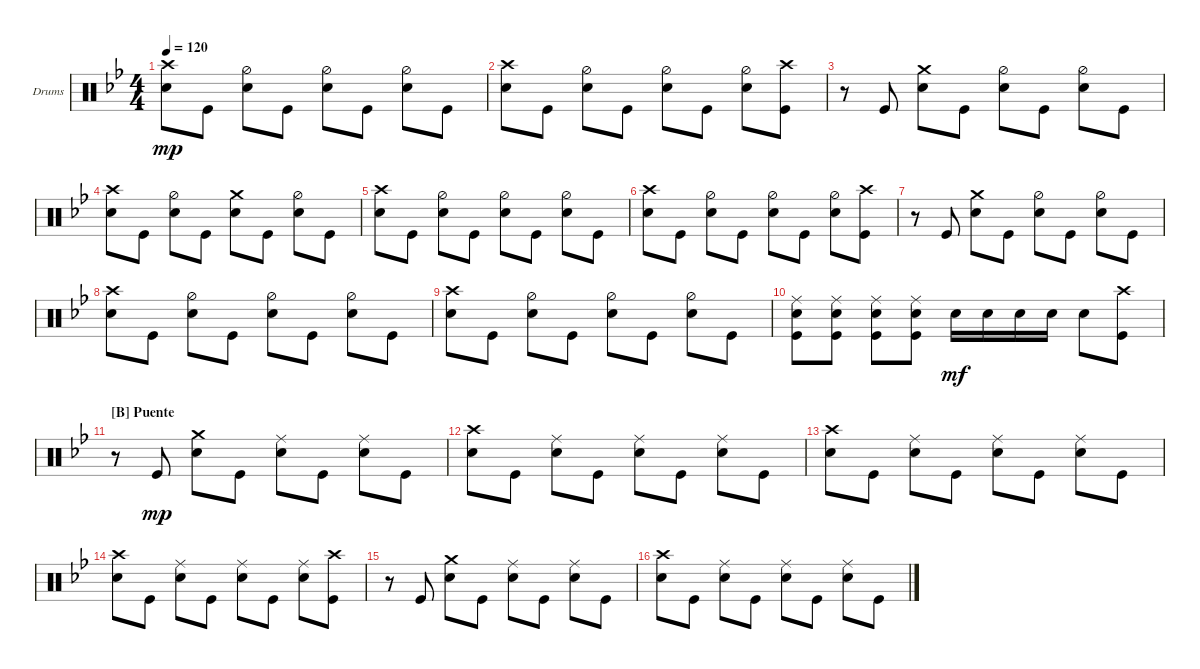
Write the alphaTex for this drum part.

\bracketExtendMode groupsimilarinstruments
\firstSystemTrackNameOrientation horizontal
\otherSystemsTrackNameOrientation horizontal
\track ("Drums Ghoul" "Drums") {instrument percussion}
\staff {score}
\articulation defaults
\ts (4 4)
\tempo 120
\clef neutral
\ks bb
("Snare (hit) 2" "Crash high (hit)").8{dy mp} "Kick (hit)".8 ("Snare (hit) 2" "Hi-Hat (half)").8 "Kick (hit)".8 ("Hi-Hat (half)" "Snare (hit) 2").8 "Kick (hit)".8 ("Hi-Hat (half)" "Snare (hit) 2").8 "Kick (hit)".8 |
("Snare (hit) 2" "Crash high (hit)").8 "Kick (hit)".8 ("Snare (hit) 2" "Hi-Hat (half)").8 "Kick (hit)".8 ("Hi-Hat (half)" "Snare (hit) 2").8 "Kick (hit)".8 ("Hi-Hat (half)" "Snare (hit) 2").8 ("Kick (hit)" "Crash high (hit)").8 |
r.8 "Kick (hit)".8 ("Snare (hit) 2" "Crash medium (hit)").8 "Kick (hit)".8 ("Hi-Hat (half)" "Snare (hit) 2").8 "Kick (hit)".8 ("Hi-Hat (half)" "Snare (hit) 2").8 "Kick (hit)".8 |
("Snare (hit) 2" "Crash high (hit)").8 "Kick (hit)".8 ("Snare (hit) 2" "Hi-Hat (half)").8 "Kick (hit)".8 ("Snare (hit) 2" "Crash medium (hit)").8 "Kick (hit)".8 ("Hi-Hat (half)" "Snare (hit) 2").8 "Kick (hit)".8 |
("Snare (hit) 2" "Crash high (hit)").8 "Kick (hit)".8 ("Snare (hit) 2" "Hi-Hat (half)").8 "Kick (hit)".8 ("Hi-Hat (half)" "Snare (hit) 2").8 "Kick (hit)".8 ("Hi-Hat (half)" "Snare (hit) 2").8 "Kick (hit)".8 |
("Snare (hit) 2" "Crash high (hit)").8 "Kick (hit)".8 ("Snare (hit) 2" "Hi-Hat (half)").8 "Kick (hit)".8 ("Hi-Hat (half)" "Snare (hit) 2").8 "Kick (hit)".8 ("Hi-Hat (half)" "Snare (hit) 2").8 ("Kick (hit)" "Crash high (hit)").8 |
r.8 "Kick (hit)".8 ("Snare (hit) 2" "Crash medium (hit)").8 "Kick (hit)".8 ("Hi-Hat (half)" "Snare (hit) 2").8 "Kick (hit)".8 ("Hi-Hat (half)" "Snare (hit) 2").8 "Kick (hit)".8 |
("Snare (hit) 2" "Crash high (hit)").8 "Kick (hit)".8 ("Snare (hit) 2" "Hi-Hat (half)").8 "Kick (hit)".8 ("Hi-Hat (half)" "Snare (hit) 2").8 "Kick (hit)".8 ("Hi-Hat (half)" "Snare (hit) 2").8 "Kick (hit)".8 |
("Snare (hit) 2" "Crash high (hit)").8 "Kick (hit)".8 ("Snare (hit) 2" "Hi-Hat (half)").8 "Kick (hit)".8 ("Hi-Hat (half)" "Snare (hit) 2").8 "Kick (hit)".8 ("Hi-Hat (half)" "Snare (hit) 2").8 "Kick (hit)".8 |
("Kick (hit)" "Snare (hit) 2" "Ride (middle)").8 ("Kick (hit)" "Snare (hit) 2" "Ride (middle)").8 ("Kick (hit)" "Snare (hit) 2" "Ride (middle)").8 ("Kick (hit)" "Snare (hit) 2" "Ride (middle)").8 "Snare (hit) 2".16{dy mf} "Snare (hit) 2".16 "Snare (hit) 2".16 "Snare (hit) 2".16 "Snare (hit) 2".8 ("Crash high (hit)" "Kick (hit)").8 |
\section ("B" "Puente")
r.8 "Kick (hit)".8{dy mp} ("Snare (hit) 2" "Crash medium (hit)").8 "Kick (hit)".8 ("Snare (hit) 2" "Ride (middle)").8 "Kick (hit)".8 ("Snare (hit) 2" "Ride (middle)").8 "Kick (hit)".8 |
("Snare (hit) 2" "Crash high (hit)").8 "Kick (hit)".8 ("Snare (hit) 2" "Ride (middle)").8 "Kick (hit)".8 ("Snare (hit) 2" "Ride (middle)").8 "Kick (hit)".8 ("Snare (hit) 2" "Ride (middle)").8 "Kick (hit)".8 |
("Snare (hit) 2" "Crash high (hit)").8 "Kick (hit)".8 ("Snare (hit) 2" "Ride (middle)").8 "Kick (hit)".8 ("Snare (hit) 2" "Ride (middle)").8 "Kick (hit)".8 ("Snare (hit) 2" "Ride (middle)").8 "Kick (hit)".8 |
("Snare (hit) 2" "Crash high (hit)").8 "Kick (hit)".8 ("Snare (hit) 2" "Ride (middle)").8 "Kick (hit)".8 ("Snare (hit) 2" "Ride (middle)").8 "Kick (hit)".8 ("Snare (hit) 2" "Ride (middle)").8 ("Kick (hit)" "Crash high (hit)").8 |
r.8 "Kick (hit)".8 ("Snare (hit) 2" "Crash medium (hit)").8 "Kick (hit)".8 ("Snare (hit) 2" "Ride (middle)").8 "Kick (hit)".8 ("Snare (hit) 2" "Ride (middle)").8 "Kick (hit)".8 |
("Snare (hit) 2" "Crash high (hit)").8 "Kick (hit)".8 ("Snare (hit) 2" "Ride (middle)").8 "Kick (hit)".8 ("Snare (hit) 2" "Ride (middle)").8 "Kick (hit)".8 ("Snare (hit) 2" "Ride (middle)").8 "Kick (hit)".8
